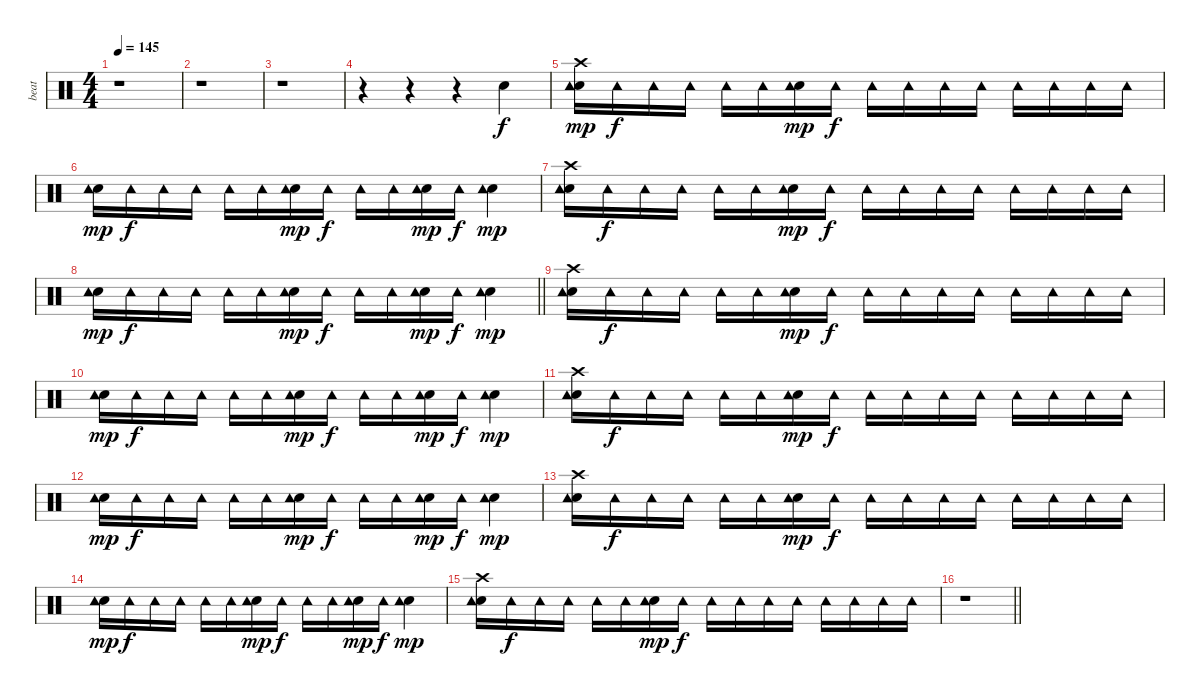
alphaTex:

\track ("beat" "beat") {instrument percussion}
\staff {score}
\articulation defaults
\ts (4 4)
\tempo 145
\clef neutral
\ks c
r.1{dy f} |
r.1 |
r.1 |
r.4 r.4 r.4 "Electric Snare (hit)".4 |
("Electric Snare (hit)" "Tambourine (hit)" "Crash high (hit)").16{dy mp} "Tambourine (hit)".16{dy f} "Tambourine (hit)".16 "Tambourine (hit)".16 "Tambourine (hit)".16 "Tambourine (hit)".16 ("Electric Snare (hit)" "Tambourine (hit)").16{dy mp} "Tambourine (hit)".16{dy f} "Tambourine (hit)".16 "Tambourine (hit)".16 "Tambourine (hit)".16 "Tambourine (hit)".16 "Tambourine (hit)".16 "Tambourine (hit)".16 "Tambourine (hit)".16 "Tambourine (hit)".16 |
("Electric Snare (hit)" "Tambourine (hit)").16{dy mp} "Tambourine (hit)".16{dy f} "Tambourine (hit)".16 "Tambourine (hit)".16 "Tambourine (hit)".16 "Tambourine (hit)".16 ("Electric Snare (hit)" "Tambourine (hit)").16{dy mp} "Tambourine (hit)".16{dy f} "Tambourine (hit)".16 "Tambourine (hit)".16 ("Electric Snare (hit)" "Tambourine (hit)").16{dy mp} "Tambourine (hit)".16{dy f} ("Electric Snare (hit)" "Tambourine (hit)").4{dy mp} |
("Electric Snare (hit)" "Tambourine (hit)" "Crash high (hit)").16 "Tambourine (hit)".16{dy f} "Tambourine (hit)".16 "Tambourine (hit)".16 "Tambourine (hit)".16 "Tambourine (hit)".16 ("Electric Snare (hit)" "Tambourine (hit)").16{dy mp} "Tambourine (hit)".16{dy f} "Tambourine (hit)".16 "Tambourine (hit)".16 "Tambourine (hit)".16 "Tambourine (hit)".16 "Tambourine (hit)".16 "Tambourine (hit)".16 "Tambourine (hit)".16 "Tambourine (hit)".16 |
\barLineRight lightlight
("Electric Snare (hit)" "Tambourine (hit)").16{dy mp} "Tambourine (hit)".16{dy f} "Tambourine (hit)".16 "Tambourine (hit)".16 "Tambourine (hit)".16 "Tambourine (hit)".16 ("Electric Snare (hit)" "Tambourine (hit)").16{dy mp} "Tambourine (hit)".16{dy f} "Tambourine (hit)".16 "Tambourine (hit)".16 ("Electric Snare (hit)" "Tambourine (hit)").16{dy mp} "Tambourine (hit)".16{dy f} ("Electric Snare (hit)" "Tambourine (hit)").4{dy mp} |
("Electric Snare (hit)" "Tambourine (hit)" "Crash high (hit)").16 "Tambourine (hit)".16{dy f} "Tambourine (hit)".16 "Tambourine (hit)".16 "Tambourine (hit)".16 "Tambourine (hit)".16 ("Electric Snare (hit)" "Tambourine (hit)").16{dy mp} "Tambourine (hit)".16{dy f} "Tambourine (hit)".16 "Tambourine (hit)".16 "Tambourine (hit)".16 "Tambourine (hit)".16 "Tambourine (hit)".16 "Tambourine (hit)".16 "Tambourine (hit)".16 "Tambourine (hit)".16 |
("Electric Snare (hit)" "Tambourine (hit)").16{dy mp} "Tambourine (hit)".16{dy f} "Tambourine (hit)".16 "Tambourine (hit)".16 "Tambourine (hit)".16 "Tambourine (hit)".16 ("Electric Snare (hit)" "Tambourine (hit)").16{dy mp} "Tambourine (hit)".16{dy f} "Tambourine (hit)".16 "Tambourine (hit)".16 ("Electric Snare (hit)" "Tambourine (hit)").16{dy mp} "Tambourine (hit)".16{dy f} ("Electric Snare (hit)" "Tambourine (hit)").4{dy mp} |
("Electric Snare (hit)" "Tambourine (hit)" "Crash high (hit)").16 "Tambourine (hit)".16{dy f} "Tambourine (hit)".16 "Tambourine (hit)".16 "Tambourine (hit)".16 "Tambourine (hit)".16 ("Electric Snare (hit)" "Tambourine (hit)").16{dy mp} "Tambourine (hit)".16{dy f} "Tambourine (hit)".16 "Tambourine (hit)".16 "Tambourine (hit)".16 "Tambourine (hit)".16 "Tambourine (hit)".16 "Tambourine (hit)".16 "Tambourine (hit)".16 "Tambourine (hit)".16 |
("Electric Snare (hit)" "Tambourine (hit)").16{dy mp} "Tambourine (hit)".16{dy f} "Tambourine (hit)".16 "Tambourine (hit)".16 "Tambourine (hit)".16 "Tambourine (hit)".16 ("Electric Snare (hit)" "Tambourine (hit)").16{dy mp} "Tambourine (hit)".16{dy f} "Tambourine (hit)".16 "Tambourine (hit)".16 ("Electric Snare (hit)" "Tambourine (hit)").16{dy mp} "Tambourine (hit)".16{dy f} ("Electric Snare (hit)" "Tambourine (hit)").4{dy mp} |
("Electric Snare (hit)" "Tambourine (hit)" "Crash high (hit)").16 "Tambourine (hit)".16{dy f} "Tambourine (hit)".16 "Tambourine (hit)".16 "Tambourine (hit)".16 "Tambourine (hit)".16 ("Electric Snare (hit)" "Tambourine (hit)").16{dy mp} "Tambourine (hit)".16{dy f} "Tambourine (hit)".16 "Tambourine (hit)".16 "Tambourine (hit)".16 "Tambourine (hit)".16 "Tambourine (hit)".16 "Tambourine (hit)".16 "Tambourine (hit)".16 "Tambourine (hit)".16 |
("Electric Snare (hit)" "Tambourine (hit)").16{dy mp} "Tambourine (hit)".16{dy f} "Tambourine (hit)".16 "Tambourine (hit)".16 "Tambourine (hit)".16 "Tambourine (hit)".16 ("Electric Snare (hit)" "Tambourine (hit)").16{dy mp} "Tambourine (hit)".16{dy f} "Tambourine (hit)".16 "Tambourine (hit)".16 ("Electric Snare (hit)" "Tambourine (hit)").16{dy mp} "Tambourine (hit)".16{dy f} ("Electric Snare (hit)" "Tambourine (hit)").4{dy mp} |
("Electric Snare (hit)" "Tambourine (hit)" "Crash high (hit)").16 "Tambourine (hit)".16{dy f} "Tambourine (hit)".16 "Tambourine (hit)".16 "Tambourine (hit)".16 "Tambourine (hit)".16 ("Electric Snare (hit)" "Tambourine (hit)").16{dy mp} "Tambourine (hit)".16{dy f} "Tambourine (hit)".16 "Tambourine (hit)".16 "Tambourine (hit)".16 "Tambourine (hit)".16 "Tambourine (hit)".16 "Tambourine (hit)".16 "Tambourine (hit)".16 "Tambourine (hit)".16 |
\barLineRight lightlight
r.1
